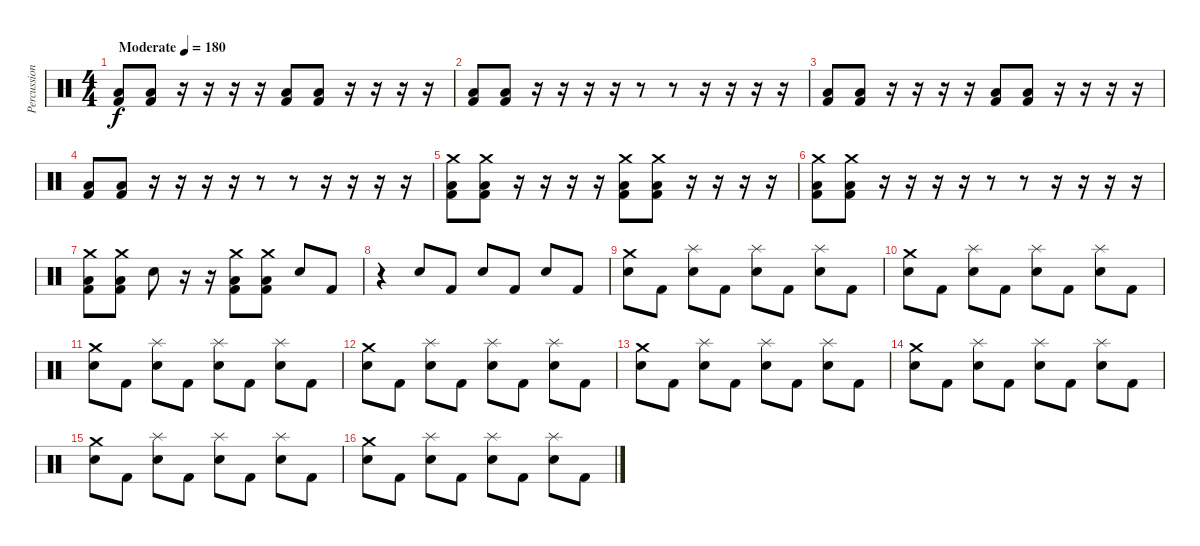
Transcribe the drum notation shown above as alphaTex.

\track ("Percussion" "Percussion") {instrument percussion}
\staff {score}
\articulation defaults
\ts (4 4)
\tempo (180 "Moderate")
\clef neutral
\ks c
("Low Floor Tom (hit)" "Kick (hit) 2").8{dy f} ("Low Floor Tom (hit)" "Kick (hit) 2").8 r.16 r.16 r.16 r.16 ("Low Floor Tom (hit)" "Kick (hit) 2").8 ("Low Floor Tom (hit)" "Kick (hit) 2").8 r.16 r.16 r.16 r.16 |
("Low Floor Tom (hit)" "Kick (hit) 2").8 ("Low Floor Tom (hit)" "Kick (hit) 2").8 r.16 r.16 r.16 r.16 r.8 r.8 r.16 r.16 r.16 r.16 |
("Low Floor Tom (hit)" "Kick (hit) 2").8 ("Low Floor Tom (hit)" "Kick (hit) 2").8 r.16 r.16 r.16 r.16 ("Low Floor Tom (hit)" "Kick (hit) 2").8 ("Low Floor Tom (hit)" "Kick (hit) 2").8 r.16 r.16 r.16 r.16 |
("Low Floor Tom (hit)" "Kick (hit) 2").8 ("Low Floor Tom (hit)" "Kick (hit) 2").8 r.16 r.16 r.16 r.16 r.8 r.8 r.16 r.16 r.16 r.16 |
("Crash medium (hit)" "Low Floor Tom (hit)" "Kick (hit) 2").8 ("Crash medium (hit)" "Low Floor Tom (hit)" "Kick (hit) 2").8 r.16 r.16 r.16 r.16 ("Crash medium (hit)" "Low Floor Tom (hit)" "Kick (hit) 2").8 ("Crash medium (hit)" "Low Floor Tom (hit)" "Kick (hit) 2").8 r.16 r.16 r.16 r.16 |
("Crash medium (hit)" "Low Floor Tom (hit)" "Kick (hit) 2").8 ("Crash medium (hit)" "Low Floor Tom (hit)" "Kick (hit) 2").8 r.16 r.16 r.16 r.16 r.8 r.8 r.16 r.16 r.16 r.16 |
("Crash medium (hit)" "Low Floor Tom (hit)" "Kick (hit) 2").8 ("Crash medium (hit)" "Low Floor Tom (hit)" "Kick (hit) 2").8 "Snare (hit) 2".8 r.16 r.16 ("Crash medium (hit)" "Low Floor Tom (hit)" "Kick (hit) 2").8 ("Crash medium (hit)" "Low Floor Tom (hit)" "Kick (hit) 2").8 "Snare (hit) 2".8 "Kick (hit) 2".8 |
r.4 "Snare (hit) 2".8 "Kick (hit) 2".8 "Snare (hit) 2".8 "Kick (hit) 2".8 "Snare (hit) 2".8 "Kick (hit) 2".8 |
("Crash medium (hit)" "Snare (hit) 2").8 "Kick (hit) 2".8 ("Splash (hit)" "Snare (hit) 2").8 "Kick (hit) 2".8 ("Splash (hit)" "Snare (hit) 2").8 "Kick (hit) 2".8 ("Splash (hit)" "Snare (hit) 2").8 "Kick (hit) 2".8 |
("Crash medium (hit)" "Snare (hit) 2").8 "Kick (hit) 2".8 ("Splash (hit)" "Snare (hit) 2").8 "Kick (hit) 2".8 ("Splash (hit)" "Snare (hit) 2").8 "Kick (hit) 2".8 ("Splash (hit)" "Snare (hit) 2").8 "Kick (hit) 2".8 |
("Crash medium (hit)" "Snare (hit) 2").8 "Kick (hit) 2".8 ("Splash (hit)" "Snare (hit) 2").8 "Kick (hit) 2".8 ("Splash (hit)" "Snare (hit) 2").8 "Kick (hit) 2".8 ("Splash (hit)" "Snare (hit) 2").8 "Kick (hit) 2".8 |
("Crash medium (hit)" "Snare (hit) 2").8 "Kick (hit) 2".8 ("Splash (hit)" "Snare (hit) 2").8 "Kick (hit) 2".8 ("Splash (hit)" "Snare (hit) 2").8 "Kick (hit) 2".8 ("Splash (hit)" "Snare (hit) 2").8 "Kick (hit) 2".8 |
("Crash medium (hit)" "Snare (hit) 2").8 "Kick (hit) 2".8 ("Splash (hit)" "Snare (hit) 2").8 "Kick (hit) 2".8 ("Splash (hit)" "Snare (hit) 2").8 "Kick (hit) 2".8 ("Splash (hit)" "Snare (hit) 2").8 "Kick (hit) 2".8 |
("Crash medium (hit)" "Snare (hit) 2").8 "Kick (hit) 2".8 ("Splash (hit)" "Snare (hit) 2").8 "Kick (hit) 2".8 ("Splash (hit)" "Snare (hit) 2").8 "Kick (hit) 2".8 ("Splash (hit)" "Snare (hit) 2").8 "Kick (hit) 2".8 |
("Crash medium (hit)" "Snare (hit) 2").8 "Kick (hit) 2".8 ("Splash (hit)" "Snare (hit) 2").8 "Kick (hit) 2".8 ("Splash (hit)" "Snare (hit) 2").8 "Kick (hit) 2".8 ("Splash (hit)" "Snare (hit) 2").8 "Kick (hit) 2".8 |
("Crash medium (hit)" "Snare (hit) 2").8 "Kick (hit) 2".8 ("Splash (hit)" "Snare (hit) 2").8 "Kick (hit) 2".8 ("Splash (hit)" "Snare (hit) 2").8 "Kick (hit) 2".8 ("Splash (hit)" "Snare (hit) 2").8 "Kick (hit) 2".8
